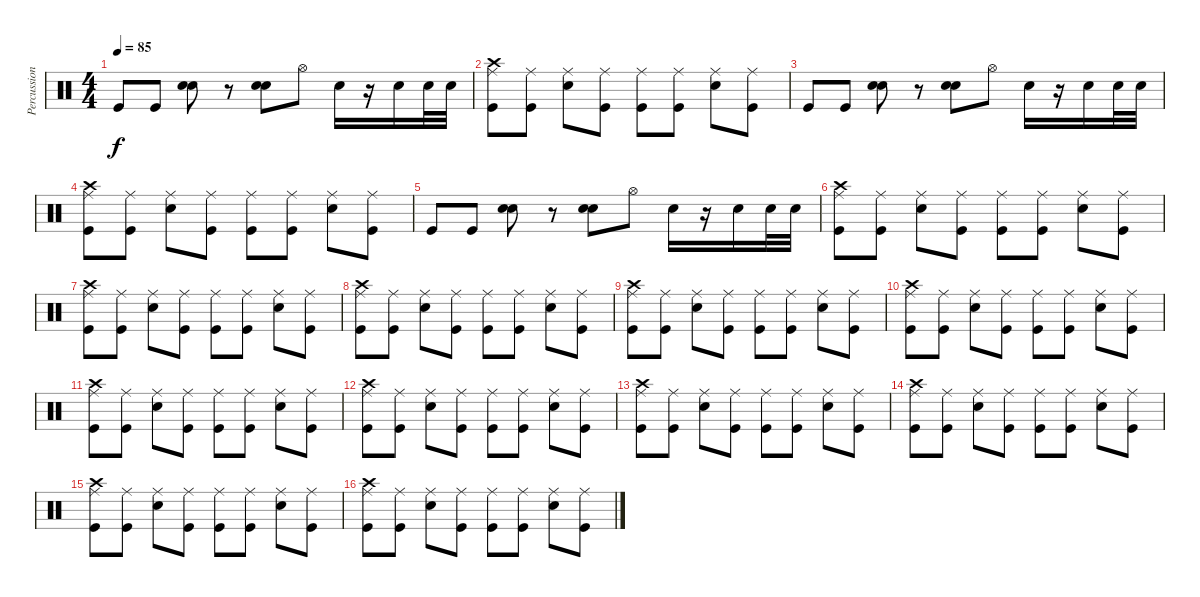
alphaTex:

\track ("Percussions" "Percussion") {instrument percussion}
\staff {score}
\articulation defaults
\ts (4 4)
\tempo 85
\clef neutral
\ks c "Kick (hit)".8{dy f} "Kick (hit)".8
("Electric Snare (hit)" "Snare (hit) 2").8{bu 120} r.8 ("Electric Snare (hit)" "Snare (hit) 2").8{bu 120} "Hi-Hat (open)".8 "Electric Snare (hit)".16 r.16 "Electric Snare (hit)".16 "Electric Snare (hit)".32 "Electric Snare (hit)".32 |
("Ride (middle)" "Crash high (hit)" "Kick (hit)").8 ("Ride (middle)" "Kick (hit)").8 ("Ride (middle)" "Electric Snare (hit)").8 ("Ride (middle)" "Kick (hit)").8 ("Ride (middle)" "Kick (hit)").8 ("Ride (middle)" "Kick (hit)").8 ("Ride (middle)" "Electric Snare (hit)").8 ("Ride (middle)" "Kick (hit)").8 |
"Kick (hit)".8 "Kick (hit)".8 ("Electric Snare (hit)" "Snare (hit) 2").8{bu 120} r.8 ("Electric Snare (hit)" "Snare (hit) 2").8{bu 120} "Hi-Hat (open)".8 "Electric Snare (hit)".16 r.16 "Electric Snare (hit)".16 "Electric Snare (hit)".32 "Electric Snare (hit)".32 |
("Ride (middle)" "Crash high (hit)" "Kick (hit)").8 ("Ride (middle)" "Kick (hit)").8 ("Ride (middle)" "Electric Snare (hit)").8 ("Ride (middle)" "Kick (hit)").8 ("Ride (middle)" "Kick (hit)").8 ("Ride (middle)" "Kick (hit)").8 ("Ride (middle)" "Electric Snare (hit)").8 ("Ride (middle)" "Kick (hit)").8 |
"Kick (hit)".8 "Kick (hit)".8 ("Electric Snare (hit)" "Snare (hit) 2").8{bu 120} r.8 ("Electric Snare (hit)" "Snare (hit) 2").8{bu 120} "Hi-Hat (open)".8 "Electric Snare (hit)".16 r.16 "Electric Snare (hit)".16 "Electric Snare (hit)".32 "Electric Snare (hit)".32 |
("Ride (middle)" "Crash high (hit)" "Kick (hit)").8 ("Ride (middle)" "Kick (hit)").8 ("Ride (middle)" "Electric Snare (hit)").8 ("Ride (middle)" "Kick (hit)").8 ("Ride (middle)" "Kick (hit)").8 ("Ride (middle)" "Kick (hit)").8 ("Ride (middle)" "Electric Snare (hit)").8 ("Ride (middle)" "Kick (hit)").8 |
("Ride (middle)" "Crash high (hit)" "Kick (hit)").8 ("Ride (middle)" "Kick (hit)").8 ("Ride (middle)" "Electric Snare (hit)").8 ("Ride (middle)" "Kick (hit)").8 ("Ride (middle)" "Kick (hit)").8 ("Ride (middle)" "Kick (hit)").8 ("Ride (middle)" "Electric Snare (hit)").8 ("Ride (middle)" "Kick (hit)").8 |
("Ride (middle)" "Crash high (hit)" "Kick (hit)").8 ("Ride (middle)" "Kick (hit)").8 ("Ride (middle)" "Electric Snare (hit)").8 ("Ride (middle)" "Kick (hit)").8 ("Ride (middle)" "Kick (hit)").8 ("Ride (middle)" "Kick (hit)").8 ("Ride (middle)" "Electric Snare (hit)").8 ("Ride (middle)" "Kick (hit)").8 |
("Ride (middle)" "Crash high (hit)" "Kick (hit)").8 ("Ride (middle)" "Kick (hit)").8 ("Ride (middle)" "Electric Snare (hit)").8 ("Ride (middle)" "Kick (hit)").8 ("Ride (middle)" "Kick (hit)").8 ("Ride (middle)" "Kick (hit)").8 ("Ride (middle)" "Electric Snare (hit)").8 ("Ride (middle)" "Kick (hit)").8 |
("Ride (middle)" "Crash high (hit)" "Kick (hit)").8 ("Ride (middle)" "Kick (hit)").8 ("Ride (middle)" "Electric Snare (hit)").8 ("Ride (middle)" "Kick (hit)").8 ("Ride (middle)" "Kick (hit)").8 ("Ride (middle)" "Kick (hit)").8 ("Ride (middle)" "Electric Snare (hit)").8 ("Ride (middle)" "Kick (hit)").8 |
("Ride (middle)" "Crash high (hit)" "Kick (hit)").8 ("Ride (middle)" "Kick (hit)").8 ("Ride (middle)" "Electric Snare (hit)").8 ("Ride (middle)" "Kick (hit)").8 ("Ride (middle)" "Kick (hit)").8 ("Ride (middle)" "Kick (hit)").8 ("Ride (middle)" "Electric Snare (hit)").8 ("Ride (middle)" "Kick (hit)").8 |
("Ride (middle)" "Crash high (hit)" "Kick (hit)").8 ("Ride (middle)" "Kick (hit)").8 ("Ride (middle)" "Electric Snare (hit)").8 ("Ride (middle)" "Kick (hit)").8 ("Ride (middle)" "Kick (hit)").8 ("Ride (middle)" "Kick (hit)").8 ("Ride (middle)" "Electric Snare (hit)").8 ("Ride (middle)" "Kick (hit)").8 |
("Ride (middle)" "Crash high (hit)" "Kick (hit)").8 ("Ride (middle)" "Kick (hit)").8 ("Ride (middle)" "Electric Snare (hit)").8 ("Ride (middle)" "Kick (hit)").8 ("Ride (middle)" "Kick (hit)").8 ("Ride (middle)" "Kick (hit)").8 ("Ride (middle)" "Electric Snare (hit)").8 ("Ride (middle)" "Kick (hit)").8 |
("Ride (middle)" "Crash high (hit)" "Kick (hit)").8 ("Ride (middle)" "Kick (hit)").8 ("Ride (middle)" "Electric Snare (hit)").8 ("Ride (middle)" "Kick (hit)").8 ("Ride (middle)" "Kick (hit)").8 ("Ride (middle)" "Kick (hit)").8 ("Ride (middle)" "Electric Snare (hit)").8 ("Ride (middle)" "Kick (hit)").8 |
("Ride (middle)" "Crash high (hit)" "Kick (hit)").8 ("Ride (middle)" "Kick (hit)").8 ("Ride (middle)" "Electric Snare (hit)").8 ("Ride (middle)" "Kick (hit)").8 ("Ride (middle)" "Kick (hit)").8 ("Ride (middle)" "Kick (hit)").8 ("Ride (middle)" "Electric Snare (hit)").8 ("Ride (middle)" "Kick (hit)").8 |
("Ride (middle)" "Crash high (hit)" "Kick (hit)").8 ("Ride (middle)" "Kick (hit)").8 ("Ride (middle)" "Electric Snare (hit)").8 ("Ride (middle)" "Kick (hit)").8 ("Ride (middle)" "Kick (hit)").8 ("Ride (middle)" "Kick (hit)").8 ("Ride (middle)" "Electric Snare (hit)").8 ("Ride (middle)" "Kick (hit)").8
